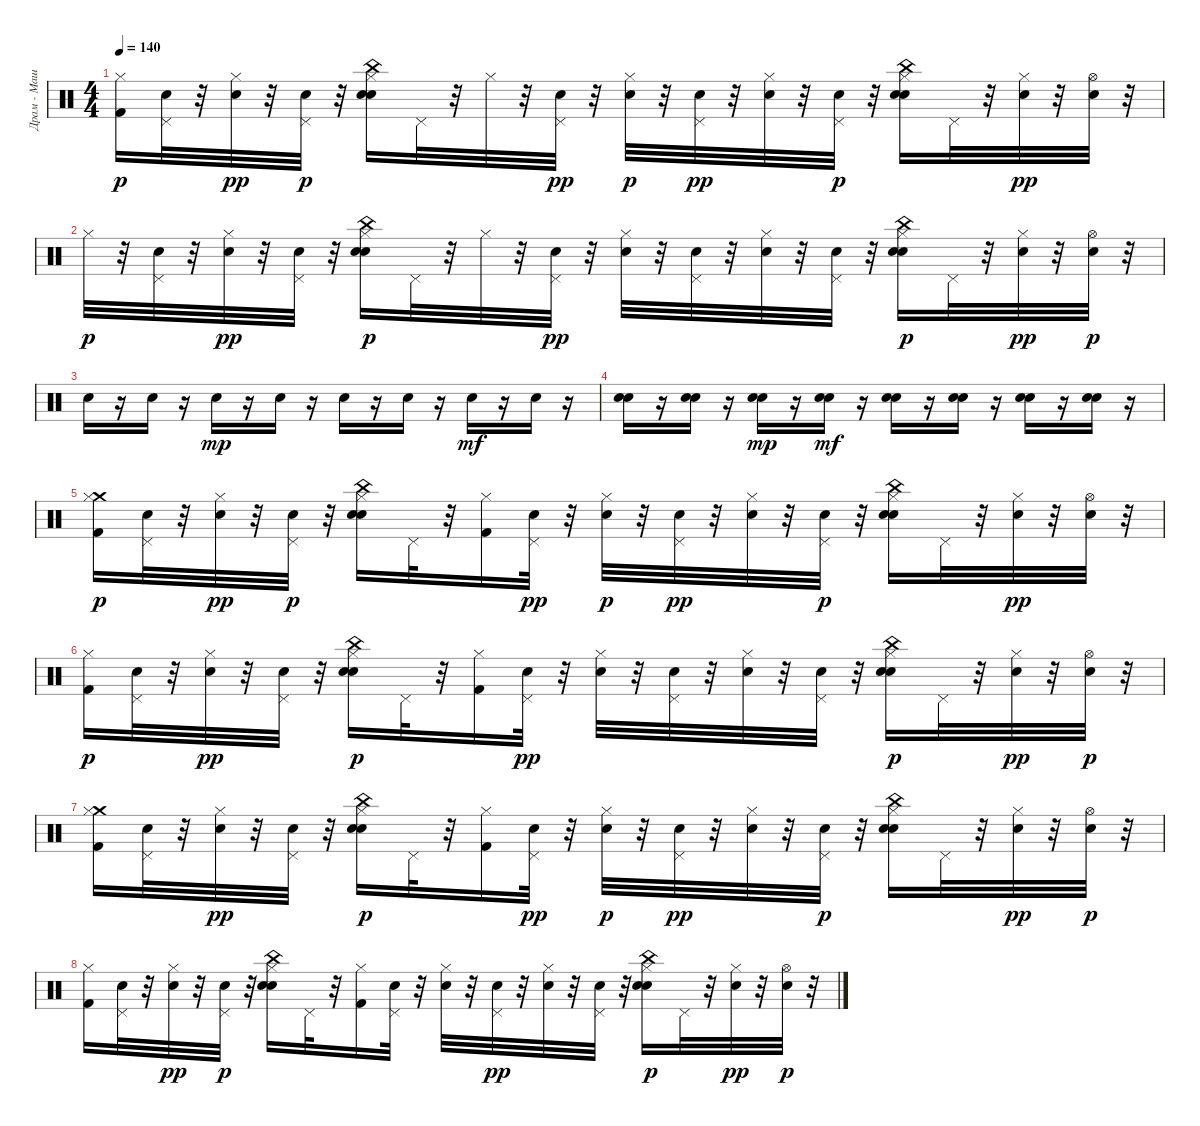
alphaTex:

\track ("Драм - Машина" "Драм - Маш") {instrument percussion}
\staff {score}
\articulation defaults
\ts (4 4)
\tempo 140
\clef neutral
\ks c
("Kick (hit) 2" "Hi-Hat (closed)").16{dy p} ("Snare (hit) 2" "Pedal Hi-Hat (hit)").32 r.32 ("Hi-Hat (closed)" "Snare (hit) 2").32{dy pp} r.32 ("Snare (hit) 2" "Pedal Hi-Hat (hit)").32{dy p} r.32 ("Electric Snare (hit)" "China (hit)" "Hand Clap (hit)" "Hi-Hat (closed)").16 "Pedal Hi-Hat (hit)".32 r.32 "Hi-Hat (closed)".32 r.32 ("Pedal Hi-Hat (hit)" "Snare (hit) 2").32{dy pp} r.32 ("Snare (hit) 2" "Hi-Hat (closed)").32{dy p} r.32 ("Pedal Hi-Hat (hit)" "Snare (hit) 2").32{dy pp} r.32 ("Hi-Hat (closed)" "Snare (hit) 2").32 r.32 ("Snare (hit) 2" "Pedal Hi-Hat (hit)").32{dy p} r.32 ("Electric Snare (hit)" "Hand Clap (hit)" "China (hit)" "Hi-Hat (closed)").16 "Pedal Hi-Hat (hit)".32 r.32 ("Hi-Hat (closed)" "Snare (hit) 2").32{dy pp} r.32 ("Hi-Hat (open)" "Snare (hit) 2").32 r.32 |
"Hi-Hat (closed)".32{dy p} r.32 ("Snare (hit) 2" "Pedal Hi-Hat (hit)").32 r.32 ("Hi-Hat (closed)" "Snare (hit) 2").32{dy pp} r.32 ("Pedal Hi-Hat (hit)" "Snare (hit) 2").32 r.32 ("Hi-Hat (closed)" "Electric Snare (hit)" "Hand Clap (hit)" "China (hit)").16{dy p} "Pedal Hi-Hat (hit)".32 r.32 "Hi-Hat (closed)".32 r.32 ("Pedal Hi-Hat (hit)" "Snare (hit) 2").32{dy pp} r.32 ("Hi-Hat (closed)" "Snare (hit) 2").32 r.32 ("Pedal Hi-Hat (hit)" "Snare (hit) 2").32 r.32 ("Hi-Hat (closed)" "Snare (hit) 2").32 r.32 ("Pedal Hi-Hat (hit)" "Snare (hit) 2").32 r.32 ("Hi-Hat (closed)" "Electric Snare (hit)" "Hand Clap (hit)" "China (hit)").16{dy p} "Pedal Hi-Hat (hit)".32 r.32 ("Hi-Hat (closed)" "Snare (hit) 2").32{dy pp} r.32 ("Snare (hit) 2" "Hi-Hat (open)").32{dy p} r.32 |
"Electric Snare (hit)".16 r.16 "Electric Snare (hit)".16 r.16 "Electric Snare (hit)".16{dy mp} r.16 "Electric Snare (hit)".16 r.16 "Electric Snare (hit)".16 r.16 "Electric Snare (hit)".16 r.16 "Electric Snare (hit)".16{dy mf} r.16 "Electric Snare (hit)".16 r.16 |
("Hand Clap (hit)" "Electric Snare (hit)").16 r.16 ("Hand Clap (hit)" "Electric Snare (hit)").16 r.16 ("Electric Snare (hit)" "Hand Clap (hit)").16{dy mp} r.16 ("Hand Clap (hit)" "Electric Snare (hit)").16{dy mf} r.16 ("Hand Clap (hit)" "Electric Snare (hit)").16 r.16 ("Hand Clap (hit)" "Electric Snare (hit)").16 r.16 ("Hand Clap (hit)" "Electric Snare (hit)").16 r.16 ("Hand Clap (hit)" "Electric Snare (hit)").16 r.16 |
("Crash medium (hit)" "Kick (hit) 2" "Hi-Hat (closed)").16{dy p} ("Snare (hit) 2" "Pedal Hi-Hat (hit)").32 r.32 ("Hi-Hat (closed)" "Snare (hit) 2").32{dy pp} r.32 ("Snare (hit) 2" "Pedal Hi-Hat (hit)").32{dy p} r.32 ("Electric Snare (hit)" "China (hit)" "Hand Clap (hit)" "Hi-Hat (closed)").16 "Pedal Hi-Hat (hit)".32 r.32 ("Hi-Hat (closed)" "Kick (hit) 2").16 ("Pedal Hi-Hat (hit)" "Snare (hit) 2").32{dy pp} r.32 ("Snare (hit) 2" "Hi-Hat (closed)").32{dy p} r.32 ("Pedal Hi-Hat (hit)" "Snare (hit) 2").32{dy pp} r.32 ("Hi-Hat (closed)" "Snare (hit) 2").32 r.32 ("Snare (hit) 2" "Pedal Hi-Hat (hit)").32{dy p} r.32 ("Electric Snare (hit)" "Hand Clap (hit)" "China (hit)" "Hi-Hat (closed)").16 "Pedal Hi-Hat (hit)".32 r.32 ("Hi-Hat (closed)" "Snare (hit) 2").32{dy pp} r.32 ("Hi-Hat (open)" "Snare (hit) 2").32 r.32 |
("Hi-Hat (closed)" "Kick (hit) 2").16{dy p} ("Snare (hit) 2" "Pedal Hi-Hat (hit)").32 r.32 ("Hi-Hat (closed)" "Snare (hit) 2").32{dy pp} r.32 ("Pedal Hi-Hat (hit)" "Snare (hit) 2").32 r.32 ("Hi-Hat (closed)" "Electric Snare (hit)" "Hand Clap (hit)" "China (hit)").16{dy p} "Pedal Hi-Hat (hit)".32 r.32 ("Hi-Hat (closed)" "Kick (hit) 2").16 ("Pedal Hi-Hat (hit)" "Snare (hit) 2").32{dy pp} r.32 ("Hi-Hat (closed)" "Snare (hit) 2").32 r.32 ("Pedal Hi-Hat (hit)" "Snare (hit) 2").32 r.32 ("Hi-Hat (closed)" "Snare (hit) 2").32 r.32 ("Pedal Hi-Hat (hit)" "Snare (hit) 2").32 r.32 ("Hi-Hat (closed)" "Electric Snare (hit)" "Hand Clap (hit)" "China (hit)").16{dy p} "Pedal Hi-Hat (hit)".32 r.32 ("Hi-Hat (closed)" "Snare (hit) 2").32{dy pp} r.32 ("Snare (hit) 2" "Hi-Hat (open)").32{dy p} r.32 |
("Crash medium (hit)" "Kick (hit) 2" "Hi-Hat (closed)").16 ("Snare (hit) 2" "Pedal Hi-Hat (hit)").32 r.32 ("Hi-Hat (closed)" "Snare (hit) 2").32{dy pp} r.32 ("Pedal Hi-Hat (hit)" "Snare (hit) 2").32 r.32 ("Hi-Hat (closed)" "Electric Snare (hit)" "Hand Clap (hit)" "China (hit)").16{dy p} "Pedal Hi-Hat (hit)".32 r.32 ("Hi-Hat (closed)" "Kick (hit) 2").16 ("Pedal Hi-Hat (hit)" "Snare (hit) 2").32{dy pp} r.32 ("Snare (hit) 2" "Hi-Hat (closed)").32{dy p} r.32 ("Pedal Hi-Hat (hit)" "Snare (hit) 2").32{dy pp} r.32 ("Hi-Hat (closed)" "Snare (hit) 2").32 r.32 ("Snare (hit) 2" "Pedal Hi-Hat (hit)").32{dy p} r.32 ("Electric Snare (hit)" "China (hit)" "Hand Clap (hit)" "Hi-Hat (closed)").16 "Pedal Hi-Hat (hit)".32 r.32 ("Hi-Hat (closed)" "Snare (hit) 2").32{dy pp} r.32 ("Snare (hit) 2" "Hi-Hat (open)").32{dy p} r.32 |
("Kick (hit) 2" "Hi-Hat (closed)").16 ("Snare (hit) 2" "Pedal Hi-Hat (hit)").32 r.32 ("Hi-Hat (closed)" "Snare (hit) 2").32{dy pp} r.32 ("Snare (hit) 2" "Pedal Hi-Hat (hit)").32{dy p} r.32 ("Electric Snare (hit)" "Hand Clap (hit)" "China (hit)" "Hi-Hat (closed)").16 "Pedal Hi-Hat (hit)".32 r.32 ("Hi-Hat (closed)" "Kick (hit) 2").16 ("Snare (hit) 2" "Pedal Hi-Hat (hit)").32 r.32 ("Snare (hit) 2" "Hi-Hat (closed)").32 r.32 ("Pedal Hi-Hat (hit)" "Snare (hit) 2").32{dy pp} r.32 ("Hi-Hat (closed)" "Snare (hit) 2").32 r.32 ("Pedal Hi-Hat (hit)" "Snare (hit) 2").32 r.32 ("Hi-Hat (closed)" "Electric Snare (hit)" "Hand Clap (hit)" "China (hit)").16{dy p} "Pedal Hi-Hat (hit)".32 r.32 ("Hi-Hat (closed)" "Snare (hit) 2").32{dy pp} r.32 ("Snare (hit) 2" "Hi-Hat (open)").32{dy p} r.32
